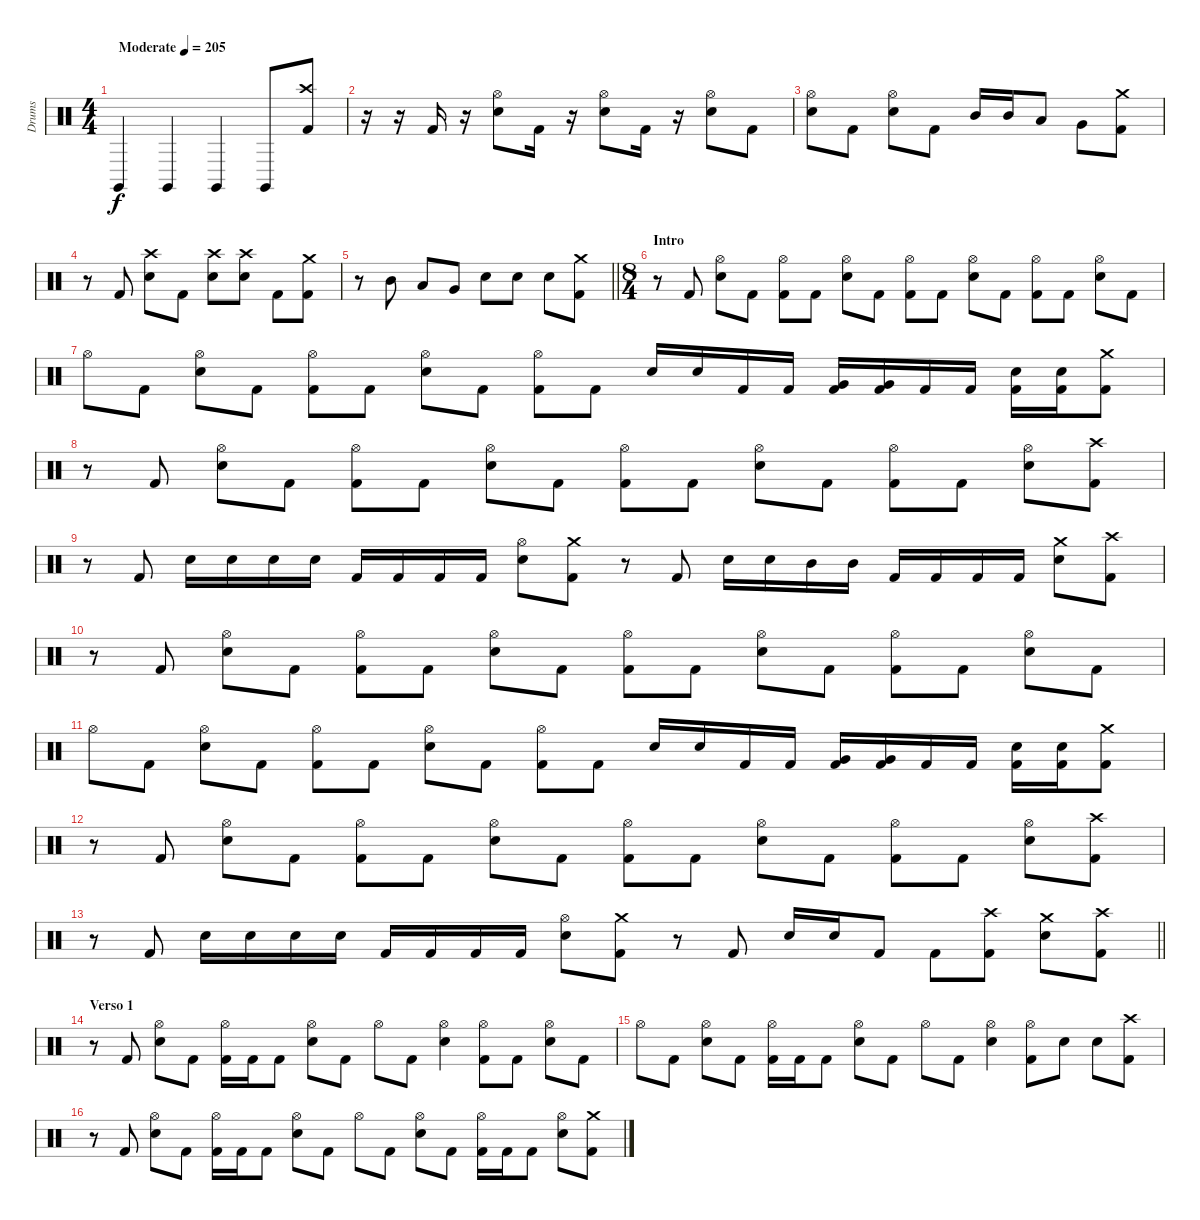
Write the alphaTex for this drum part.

\track ("Drums" "Drums") {instrument percussion}
\staff {score}
\articulation defaults
\ts (4 4)
\tempo (205 "Moderate")
\clef neutral
\ks c "Claves (hit)".4{dy f} "Claves (hit)".4 "Claves (hit)".4 "Claves (hit)".8
("Crash high (hit)" "Kick (hit) 2").8 |
r.16 r.16 "Kick (hit) 2".16 r.16 ("Hi-Hat (open)" "Electric Snare (hit)").8 "Kick (hit) 2".16 r.16 ("Hi-Hat (open)" "Electric Snare (hit)").8 "Kick (hit) 2".16 r.16 ("Hi-Hat (open)" "Electric Snare (hit)").8 "Kick (hit) 2".8 |
("Hi-Hat (open)" "Electric Snare (hit)").8 "Kick (hit) 2".8 ("Hi-Hat (open)" "Electric Snare (hit)").8 "Kick (hit) 2".8 "Mid Tom (hit)".16 "Mid Tom (hit)".16 "Low Tom (hit)".8 "Very Low Tom (hit)".8 ("Crash medium (hit)" "Kick (hit) 2").8 |
r.8 "Kick (hit) 2".8 ("Crash high (hit)" "Electric Snare (hit)").8 "Kick (hit) 2".8 ("Crash high (hit)" "Electric Snare (hit)").8 ("Crash high (hit)" "Electric Snare (hit)").8 "Kick (hit) 2".8 ("Crash medium (hit)" "Kick (hit) 2").8 |
\barLineRight lightlight
r.8 "Mid Tom (hit)".8 "Low Tom (hit)".8 "Very Low Tom (hit)".8 "Electric Snare (hit)".8 "Electric Snare (hit)".8 "Electric Snare (hit)".8 ("Crash medium (hit)" "Kick (hit) 2").8 |
\ts (8 4)
\section ("" "Intro")
r.8 "Kick (hit) 2".8 ("Hi-Hat (open)" "Electric Snare (hit)").8 "Kick (hit) 2".8 ("Hi-Hat (open)" "Kick (hit) 2").8 "Kick (hit) 2".8 ("Hi-Hat (open)" "Electric Snare (hit)").8 "Kick (hit) 2".8 ("Hi-Hat (open)" "Kick (hit) 2").8 "Kick (hit) 2".8 ("Hi-Hat (open)" "Electric Snare (hit)").8 "Kick (hit) 2".8 ("Hi-Hat (open)" "Kick (hit) 2").8 "Kick (hit) 2".8 ("Hi-Hat (open)" "Electric Snare (hit)").8 "Kick (hit) 2".8 |
"Hi-Hat (open)".8 "Kick (hit) 2".8 ("Hi-Hat (open)" "Electric Snare (hit)").8 "Kick (hit) 2".8 ("Hi-Hat (open)" "Kick (hit) 2").8 "Kick (hit) 2".8 ("Hi-Hat (open)" "Electric Snare (hit)").8 "Kick (hit) 2".8 ("Hi-Hat (open)" "Kick (hit) 2").8 "Kick (hit) 2".8 "Electric Snare (hit)".16 "Electric Snare (hit)".16 "Kick (hit) 2".16 "Kick (hit) 2".16 ("Very Low Tom (hit)" "Kick (hit) 2").16 ("Very Low Tom (hit)" "Kick (hit) 2").16 "Kick (hit) 2".16 "Kick (hit) 2".16 ("Electric Snare (hit)" "Kick (hit) 2").16 ("Electric Snare (hit)" "Kick (hit) 2").16 ("Crash medium (hit)" "Kick (hit) 2").8 |
r.8 "Kick (hit) 2".8 ("Hi-Hat (open)" "Electric Snare (hit)").8 "Kick (hit) 2".8 ("Hi-Hat (open)" "Kick (hit) 2").8 "Kick (hit) 2".8 ("Hi-Hat (open)" "Electric Snare (hit)").8 "Kick (hit) 2".8 ("Hi-Hat (open)" "Kick (hit) 2").8 "Kick (hit) 2".8 ("Hi-Hat (open)" "Electric Snare (hit)").8 "Kick (hit) 2".8 ("Hi-Hat (open)" "Kick (hit) 2").8 "Kick (hit) 2".8 ("Hi-Hat (open)" "Electric Snare (hit)").8 ("Crash high (hit)" "Kick (hit) 2").8 |
r.8 "Kick (hit) 2".8 "Electric Snare (hit)".16 "Electric Snare (hit)".16 "Electric Snare (hit)".16 "Electric Snare (hit)".16 "Kick (hit) 2".16 "Kick (hit) 2".16 "Kick (hit) 2".16 "Kick (hit) 2".16 ("Hi-Hat (open)" "Electric Snare (hit)").8 ("Crash medium (hit)" "Kick (hit) 2").8 r.8 "Kick (hit) 2".8 "Electric Snare (hit)".16 "Electric Snare (hit)".16 "Mid Tom (hit)".16 "Mid Tom (hit)".16 "Kick (hit) 2".16 "Kick (hit) 2".16 "Kick (hit) 2".16 "Kick (hit) 2".16 ("Crash medium (hit)" "Electric Snare (hit)").8 ("Crash high (hit)" "Kick (hit) 2").8 |
r.8 "Kick (hit) 2".8 ("Hi-Hat (open)" "Electric Snare (hit)").8 "Kick (hit) 2".8 ("Hi-Hat (open)" "Kick (hit) 2").8 "Kick (hit) 2".8 ("Hi-Hat (open)" "Electric Snare (hit)").8 "Kick (hit) 2".8 ("Hi-Hat (open)" "Kick (hit) 2").8 "Kick (hit) 2".8 ("Hi-Hat (open)" "Electric Snare (hit)").8 "Kick (hit) 2".8 ("Hi-Hat (open)" "Kick (hit) 2").8 "Kick (hit) 2".8 ("Hi-Hat (open)" "Electric Snare (hit)").8 "Kick (hit) 2".8 |
"Hi-Hat (open)".8 "Kick (hit) 2".8 ("Hi-Hat (open)" "Electric Snare (hit)").8 "Kick (hit) 2".8 ("Hi-Hat (open)" "Kick (hit) 2").8 "Kick (hit) 2".8 ("Hi-Hat (open)" "Electric Snare (hit)").8 "Kick (hit) 2".8 ("Hi-Hat (open)" "Kick (hit) 2").8 "Kick (hit) 2".8 "Electric Snare (hit)".16 "Electric Snare (hit)".16 "Kick (hit) 2".16 "Kick (hit) 2".16 ("Very Low Tom (hit)" "Kick (hit) 2").16 ("Very Low Tom (hit)" "Kick (hit) 2").16 "Kick (hit) 2".16 "Kick (hit) 2".16 ("Electric Snare (hit)" "Kick (hit) 2").16 ("Electric Snare (hit)" "Kick (hit) 2").16 ("Crash medium (hit)" "Kick (hit) 2").8 |
r.8 "Kick (hit) 2".8 ("Hi-Hat (open)" "Electric Snare (hit)").8 "Kick (hit) 2".8 ("Hi-Hat (open)" "Kick (hit) 2").8 "Kick (hit) 2".8 ("Hi-Hat (open)" "Electric Snare (hit)").8 "Kick (hit) 2".8 ("Hi-Hat (open)" "Kick (hit) 2").8 "Kick (hit) 2".8 ("Hi-Hat (open)" "Electric Snare (hit)").8 "Kick (hit) 2".8 ("Hi-Hat (open)" "Kick (hit) 2").8 "Kick (hit) 2".8 ("Hi-Hat (open)" "Electric Snare (hit)").8 ("Crash high (hit)" "Kick (hit) 2").8 |
\barLineRight lightlight
r.8 "Kick (hit) 2".8 "Electric Snare (hit)".16 "Electric Snare (hit)".16 "Electric Snare (hit)".16 "Electric Snare (hit)".16 "Kick (hit) 2".16 "Kick (hit) 2".16 "Kick (hit) 2".16 "Kick (hit) 2".16 ("Hi-Hat (open)" "Electric Snare (hit)").8 ("Crash medium (hit)" "Kick (hit) 2").8 r.8 "Kick (hit) 2".8 "Electric Snare (hit)".16 "Electric Snare (hit)".16 "Kick (hit) 2".8 "Kick (hit) 2".8 ("Crash high (hit)" "Kick (hit) 2").8 ("Crash medium (hit)" "Electric Snare (hit)").8 ("Crash high (hit)" "Kick (hit) 2").8 |
\section ("" "Verso 1")
r.8 "Kick (hit) 2".8 ("Hi-Hat (open)" "Electric Snare (hit)").8 "Kick (hit) 2".8 ("Hi-Hat (open)" "Kick (hit) 2").16 "Kick (hit) 2".16 "Kick (hit) 2".8 ("Hi-Hat (open)" "Electric Snare (hit)").8 "Kick (hit) 2".8 "Hi-Hat (open)".8 "Kick (hit) 2".8 ("Hi-Hat (open)" "Electric Snare (hit)").4 ("Hi-Hat (open)" "Kick (hit) 2").8 "Kick (hit) 2".8 ("Hi-Hat (open)" "Electric Snare (hit)").8 "Kick (hit) 2".8 |
"Hi-Hat (open)".8 "Kick (hit) 2".8 ("Hi-Hat (open)" "Electric Snare (hit)").8 "Kick (hit) 2".8 ("Hi-Hat (open)" "Kick (hit) 2").16 "Kick (hit) 2".16 "Kick (hit) 2".8 ("Hi-Hat (open)" "Electric Snare (hit)").8 "Kick (hit) 2".8 "Hi-Hat (open)".8 "Kick (hit) 2".8 ("Hi-Hat (open)" "Electric Snare (hit)").4 ("Hi-Hat (open)" "Kick (hit) 2").8 "Electric Snare (hit)".8 "Electric Snare (hit)".8 ("Crash high (hit)" "Kick (hit) 2").8 |
r.8 "Kick (hit) 2".8 ("Hi-Hat (open)" "Electric Snare (hit)").8 "Kick (hit) 2".8 ("Hi-Hat (open)" "Kick (hit) 2").16 "Kick (hit) 2".16 "Kick (hit) 2".8 ("Hi-Hat (open)" "Electric Snare (hit)").8 "Kick (hit) 2".8 "Hi-Hat (open)".8 "Kick (hit) 2".8 ("Hi-Hat (open)" "Electric Snare (hit)").8 "Kick (hit) 2".8 ("Hi-Hat (open)" "Kick (hit) 2").16 "Kick (hit) 2".16 "Kick (hit) 2".8 ("Hi-Hat (open)" "Electric Snare (hit)").8 ("Crash medium (hit)" "Kick (hit) 2").8
